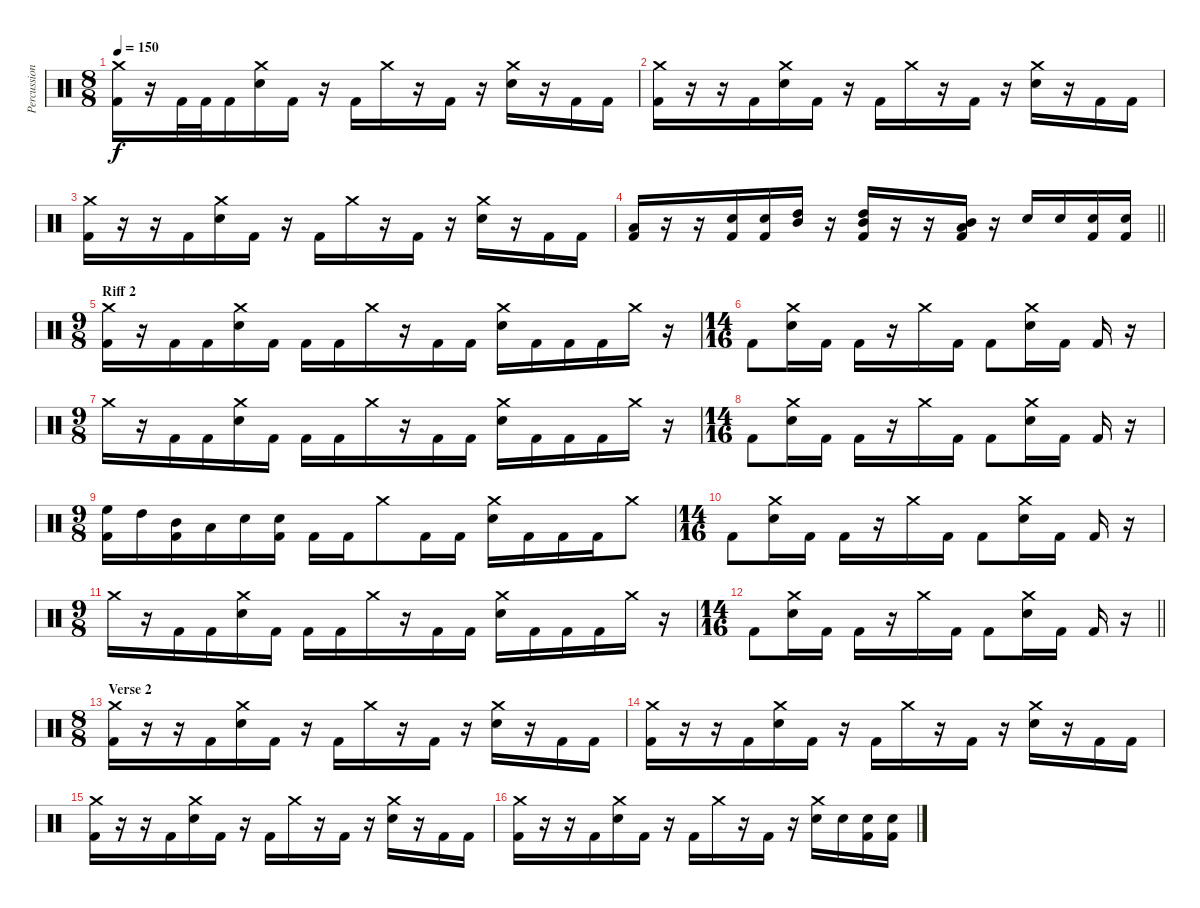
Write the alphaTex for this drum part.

\track ("Percussions" "Percussion") {instrument percussion}
\staff {score}
\articulation defaults
\ts (8 8)
\tempo 150
\clef neutral
\ks c
("Crash medium (hit)" "Kick (hit) 2").16{dy f} r.16 "Kick (hit) 2".32 "Kick (hit) 2".32 "Kick (hit) 2".16 ("Crash medium (hit)" "Electric Snare (hit)").16 "Kick (hit) 2".16 r.16 "Kick (hit) 2".16 "Crash medium (hit)".16 r.16 "Kick (hit) 2".16 r.16 ("Crash medium (hit)" "Electric Snare (hit)").16 r.16 "Kick (hit) 2".16 "Kick (hit) 2".16 |
("Crash medium (hit)" "Kick (hit) 2").16 r.16 r.16 "Kick (hit) 2".16 ("Crash medium (hit)" "Electric Snare (hit)").16 "Kick (hit) 2".16 r.16 "Kick (hit) 2".16 "Crash medium (hit)".16 r.16 "Kick (hit) 2".16 r.16 ("Crash medium (hit)" "Electric Snare (hit)").16 r.16 "Kick (hit) 2".16 "Kick (hit) 2".16 |
("Crash medium (hit)" "Kick (hit) 2").16 r.16 r.16 "Kick (hit) 2".16 ("Crash medium (hit)" "Electric Snare (hit)").16 "Kick (hit) 2".16 r.16 "Kick (hit) 2".16 "Crash medium (hit)".16 r.16 "Kick (hit) 2".16 r.16 ("Crash medium (hit)" "Electric Snare (hit)").16 r.16 "Kick (hit) 2".16 "Kick (hit) 2".16 |
\barLineRight lightlight
("Low Tom (hit)" "Kick (hit) 2").16 r.16 r.16 ("Electric Snare (hit)" "Kick (hit) 2").16 ("Electric Snare (hit)" "Kick (hit) 2").16 ("Mid Tom (hit)" "High Tom (hit)").16 r.16 ("High Tom (hit)" "Mid Tom (hit)" "Kick (hit) 2").16 r.16 r.16 ("Mid Tom (hit)" "Low Tom (hit)" "Kick (hit) 2").16 r.16 "Electric Snare (hit)".16 "Electric Snare (hit)".16 ("Electric Snare (hit)" "Kick (hit) 2").16 ("Electric Snare (hit)" "Kick (hit) 2").16 |
\ts (9 8)
\section ("" "Riff 2")
("Crash medium (hit)" "Kick (hit) 2").16 r.16 "Kick (hit) 2".16 "Kick (hit) 2".16 ("Crash medium (hit)" "Electric Snare (hit)").16 "Kick (hit) 2".16 "Kick (hit) 2".16 "Kick (hit) 2".16 "Crash medium (hit)".16 r.16 "Kick (hit) 2".16 "Kick (hit) 2".16 ("Crash medium (hit)" "Electric Snare (hit)").16 "Kick (hit) 2".16 "Kick (hit) 2".16 "Kick (hit) 2".16 "Crash medium (hit)".16 r.16 |
\ts (14 16)
"Kick (hit) 2".8 ("Crash medium (hit)" "Electric Snare (hit)").16 "Kick (hit) 2".16 "Kick (hit) 2".16 r.16 "Crash medium (hit)".16 "Kick (hit) 2".16 "Kick (hit) 2".8 ("Crash medium (hit)" "Electric Snare (hit)").16 "Kick (hit) 2".16 "Kick (hit) 2".16 r.16 |
\ts (9 8)
"Crash medium (hit)".16 r.16 "Kick (hit) 2".16 "Kick (hit) 2".16 ("Crash medium (hit)" "Electric Snare (hit)").16 "Kick (hit) 2".16 "Kick (hit) 2".16 "Kick (hit) 2".16 "Crash medium (hit)".16 r.16 "Kick (hit) 2".16 "Kick (hit) 2".16 ("Crash medium (hit)" "Electric Snare (hit)").16 "Kick (hit) 2".16 "Kick (hit) 2".16 "Kick (hit) 2".16 "Crash medium (hit)".16 r.16 |
\ts (14 16)
"Kick (hit) 2".8 ("Crash medium (hit)" "Electric Snare (hit)").16 "Kick (hit) 2".16 "Kick (hit) 2".16 r.16 "Crash medium (hit)".16 "Kick (hit) 2".16 "Kick (hit) 2".8 ("Crash medium (hit)" "Electric Snare (hit)").16 "Kick (hit) 2".16 "Kick (hit) 2".16 r.16 |
\ts (9 8)
("High Floor Tom (hit)" "Kick (hit) 2").16 "High Tom (hit)".16 ("Mid Tom (hit)" "Kick (hit) 2").16 "Low Tom (hit)".16 "Electric Snare (hit)".16 ("Electric Snare (hit)" "Kick (hit) 2").16 "Kick (hit) 2".16 "Kick (hit) 2".16 "Crash medium (hit)".8 "Kick (hit) 2".16 "Kick (hit) 2".16 ("Crash medium (hit)" "Electric Snare (hit)").16 "Kick (hit) 2".16 "Kick (hit) 2".16 "Kick (hit) 2".16 "Crash medium (hit)".8 |
\ts (14 16)
"Kick (hit) 2".8 ("Crash medium (hit)" "Electric Snare (hit)").16 "Kick (hit) 2".16 "Kick (hit) 2".16 r.16 "Crash medium (hit)".16 "Kick (hit) 2".16 "Kick (hit) 2".8 ("Crash medium (hit)" "Electric Snare (hit)").16 "Kick (hit) 2".16 "Kick (hit) 2".16 r.16 |
\ts (9 8)
"Crash medium (hit)".16 r.16 "Kick (hit) 2".16 "Kick (hit) 2".16 ("Crash medium (hit)" "Electric Snare (hit)").16 "Kick (hit) 2".16 "Kick (hit) 2".16 "Kick (hit) 2".16 "Crash medium (hit)".16 r.16 "Kick (hit) 2".16 "Kick (hit) 2".16 ("Crash medium (hit)" "Electric Snare (hit)").16 "Kick (hit) 2".16 "Kick (hit) 2".16 "Kick (hit) 2".16 "Crash medium (hit)".16 r.16 |
\ts (14 16)
\barLineRight lightlight "Kick (hit) 2".8
("Crash medium (hit)" "Electric Snare (hit)").16 "Kick (hit) 2".16 "Kick (hit) 2".16 r.16 "Crash medium (hit)".16 "Kick (hit) 2".16 "Kick (hit) 2".8 ("Crash medium (hit)" "Electric Snare (hit)").16 "Kick (hit) 2".16 "Kick (hit) 2".16 r.16 |
\ts (8 8)
\section ("" "Verse 2")
("Crash medium (hit)" "Kick (hit) 2").16 r.16 r.16 "Kick (hit) 2".16 ("Crash medium (hit)" "Electric Snare (hit)").16 "Kick (hit) 2".16 r.16 "Kick (hit) 2".16 "Crash medium (hit)".16 r.16 "Kick (hit) 2".16 r.16 ("Crash medium (hit)" "Electric Snare (hit)").16 r.16 "Kick (hit) 2".16 "Kick (hit) 2".16 |
("Crash medium (hit)" "Kick (hit) 2").16 r.16 r.16 "Kick (hit) 2".16 ("Crash medium (hit)" "Electric Snare (hit)").16 "Kick (hit) 2".16 r.16 "Kick (hit) 2".16 "Crash medium (hit)".16 r.16 "Kick (hit) 2".16 r.16 ("Crash medium (hit)" "Electric Snare (hit)").16 r.16 "Kick (hit) 2".16 "Kick (hit) 2".16 |
("Crash medium (hit)" "Kick (hit) 2").16 r.16 r.16 "Kick (hit) 2".16 ("Crash medium (hit)" "Electric Snare (hit)").16 "Kick (hit) 2".16 r.16 "Kick (hit) 2".16 "Crash medium (hit)".16 r.16 "Kick (hit) 2".16 r.16 ("Crash medium (hit)" "Electric Snare (hit)").16 r.16 "Kick (hit) 2".16 "Kick (hit) 2".16 |
("Crash medium (hit)" "Kick (hit) 2").16 r.16 r.16 "Kick (hit) 2".16 ("Crash medium (hit)" "Electric Snare (hit)").16 "Kick (hit) 2".16 r.16 "Kick (hit) 2".16 "Crash medium (hit)".16 r.16 "Kick (hit) 2".16 r.16 ("Crash medium (hit)" "Electric Snare (hit)").16 "Electric Snare (hit)".16 ("Electric Snare (hit)" "Kick (hit) 2").16 ("Electric Snare (hit)" "Kick (hit) 2").16
